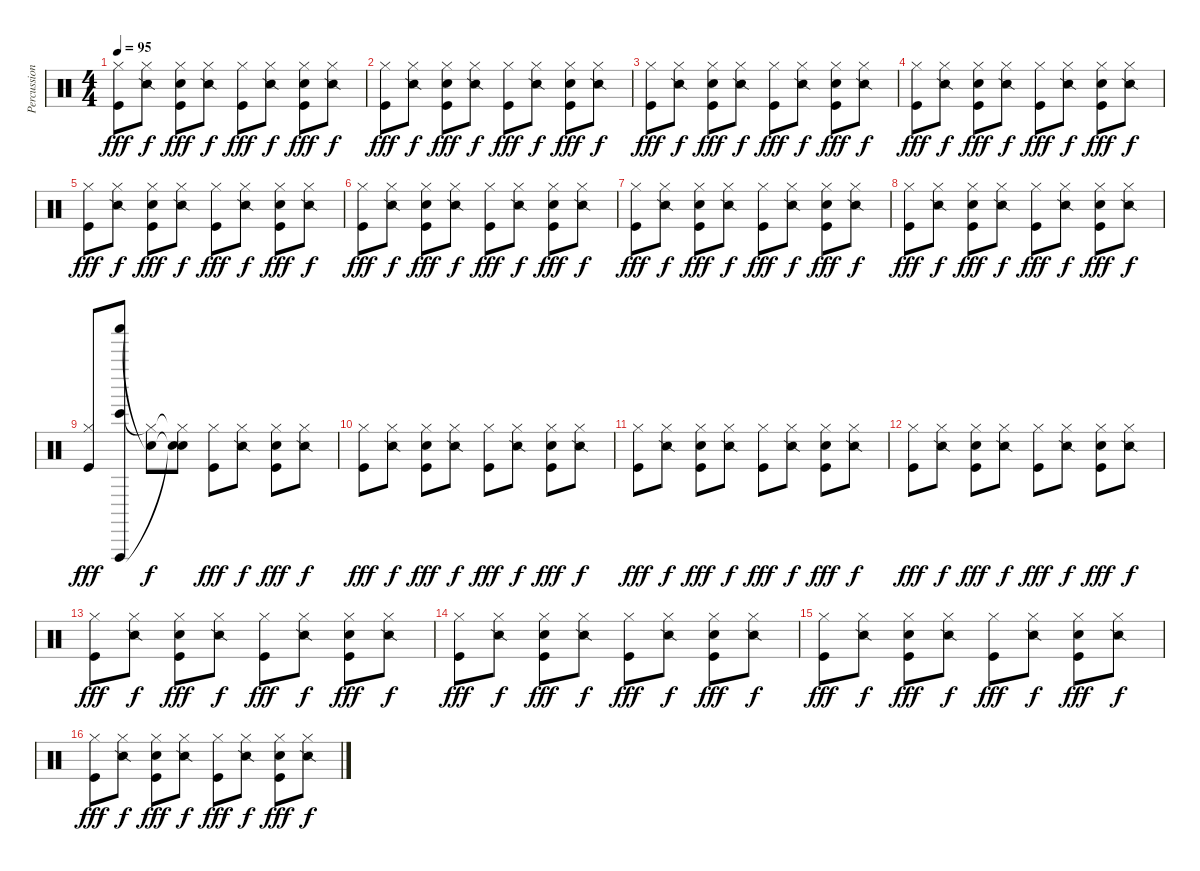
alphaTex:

\track ("Percussion" "Percussion") {instrument percussion}
\staff {score}
\articulation defaults
\ts (4 4)
\tempo 95
\clef neutral
\ks c
("Hi-Hat (closed)" "Kick (hit)").8{dy fff} ("Snare (side stick) 2" "Hi-Hat (closed)").8{dy f} ("Hi-Hat (closed)" "Snare (hit) 2" "Kick (hit)").8{dy fff} ("Snare (side stick) 2" "Hi-Hat (closed)").8{dy f} ("Hi-Hat (closed)" "Kick (hit)").8{dy fff} ("Snare (side stick) 2" "Hi-Hat (closed)").8{dy f} ("Hi-Hat (closed)" "Snare (hit) 2" "Kick (hit)").8{dy fff} ("Snare (side stick) 2" "Hi-Hat (closed)").8{dy f} |
("Hi-Hat (closed)" "Kick (hit)").8{dy fff} ("Snare (side stick) 2" "Hi-Hat (closed)").8{dy f} ("Hi-Hat (closed)" "Snare (hit) 2" "Kick (hit)").8{dy fff} ("Snare (side stick) 2" "Hi-Hat (closed)").8{dy f} ("Hi-Hat (closed)" "Kick (hit)").8{dy fff} ("Snare (side stick) 2" "Hi-Hat (closed)").8{dy f} ("Hi-Hat (closed)" "Snare (hit) 2" "Kick (hit)").8{dy fff} ("Snare (side stick) 2" "Hi-Hat (closed)").8{dy f} |
("Hi-Hat (closed)" "Kick (hit)").8{dy fff} ("Snare (side stick) 2" "Hi-Hat (closed)").8{dy f} ("Hi-Hat (closed)" "Snare (hit) 2" "Kick (hit)").8{dy fff} ("Snare (side stick) 2" "Hi-Hat (closed)").8{dy f} ("Hi-Hat (closed)" "Kick (hit)").8{dy fff} ("Snare (side stick) 2" "Hi-Hat (closed)").8{dy f} ("Hi-Hat (closed)" "Snare (hit) 2" "Kick (hit)").8{dy fff} ("Snare (side stick) 2" "Hi-Hat (closed)").8{dy f} |
("Hi-Hat (closed)" "Kick (hit)").8{dy fff} ("Snare (side stick) 2" "Hi-Hat (closed)").8{dy f} ("Hi-Hat (closed)" "Snare (hit) 2" "Kick (hit)").8{dy fff} ("Snare (side stick) 2" "Hi-Hat (closed)").8{dy f} ("Hi-Hat (closed)" "Kick (hit)").8{dy fff} ("Snare (side stick) 2" "Hi-Hat (closed)").8{dy f} ("Hi-Hat (closed)" "Snare (hit) 2" "Kick (hit)").8{dy fff} ("Snare (side stick) 2" "Hi-Hat (closed)").8{dy f} |
("Hi-Hat (closed)" "Kick (hit)").8{dy fff} ("Snare (side stick) 2" "Hi-Hat (closed)").8{dy f} ("Hi-Hat (closed)" "Snare (hit) 2" "Kick (hit)").8{dy fff} ("Snare (side stick) 2" "Hi-Hat (closed)").8{dy f} ("Hi-Hat (closed)" "Kick (hit)").8{dy fff} ("Snare (side stick) 2" "Hi-Hat (closed)").8{dy f} ("Hi-Hat (closed)" "Snare (hit) 2" "Kick (hit)").8{dy fff} ("Snare (side stick) 2" "Hi-Hat (closed)").8{dy f} |
("Hi-Hat (closed)" "Kick (hit)").8{dy fff} ("Snare (side stick) 2" "Hi-Hat (closed)").8{dy f} ("Hi-Hat (closed)" "Snare (hit) 2" "Kick (hit)").8{dy fff} ("Snare (side stick) 2" "Hi-Hat (closed)").8{dy f} ("Hi-Hat (closed)" "Kick (hit)").8{dy fff} ("Snare (side stick) 2" "Hi-Hat (closed)").8{dy f} ("Hi-Hat (closed)" "Snare (hit) 2" "Kick (hit)").8{dy fff} ("Snare (side stick) 2" "Hi-Hat (closed)").8{dy f} |
("Hi-Hat (closed)" "Kick (hit)").8{dy fff} ("Snare (side stick) 2" "Hi-Hat (closed)").8{dy f} ("Hi-Hat (closed)" "Snare (hit) 2" "Kick (hit)").8{dy fff} ("Snare (side stick) 2" "Hi-Hat (closed)").8{dy f} ("Hi-Hat (closed)" "Kick (hit)").8{dy fff} ("Snare (side stick) 2" "Hi-Hat (closed)").8{dy f} ("Hi-Hat (closed)" "Snare (hit) 2" "Kick (hit)").8{dy fff} ("Snare (side stick) 2" "Hi-Hat (closed)").8{dy f} |
("Hi-Hat (closed)" "Kick (hit)").8{dy fff} ("Snare (side stick) 2" "Hi-Hat (closed)").8{dy f} ("Hi-Hat (closed)" "Snare (hit) 2" "Kick (hit)").8{dy fff} ("Snare (side stick) 2" "Hi-Hat (closed)").8{dy f} ("Hi-Hat (closed)" "Kick (hit)").8{dy fff} ("Snare (side stick) 2" "Hi-Hat (closed)").8{dy f} ("Hi-Hat (closed)" "Snare (hit) 2" "Kick (hit)").8{dy fff} ("Snare (side stick) 2" "Hi-Hat (closed)").8{dy f} |
("Hi-Hat (closed)" "Kick (hit)").8{dy fff} ("Bongo High (hit)" "Shaker (hit)" "Vibraslap (hit)").8 ("Hi-Hat (closed)"{t} "Snare (hit) 2"{t}).8{dy f} ("Hi-Hat (closed)"{t} "Snare (hit)"{t} "Snare (hit)"{t}).8 ("Hi-Hat (closed)" "Kick (hit)").8{dy fff} ("Snare (side stick) 2" "Hi-Hat (closed)").8{dy f} ("Hi-Hat (closed)" "Snare (hit) 2" "Kick (hit)").8{dy fff} ("Snare (side stick) 2" "Hi-Hat (closed)").8{dy f} |
("Hi-Hat (closed)" "Kick (hit)").8{dy fff} ("Snare (side stick) 2" "Hi-Hat (closed)").8{dy f} ("Hi-Hat (closed)" "Snare (hit) 2" "Kick (hit)").8{dy fff} ("Snare (side stick) 2" "Hi-Hat (closed)").8{dy f} ("Hi-Hat (closed)" "Kick (hit)").8{dy fff} ("Snare (side stick) 2" "Hi-Hat (closed)").8{dy f} ("Hi-Hat (closed)" "Snare (hit) 2" "Kick (hit)").8{dy fff} ("Snare (side stick) 2" "Hi-Hat (closed)").8{dy f} |
("Hi-Hat (closed)" "Kick (hit)").8{dy fff} ("Snare (side stick) 2" "Hi-Hat (closed)").8{dy f} ("Hi-Hat (closed)" "Snare (hit) 2" "Kick (hit)").8{dy fff} ("Snare (side stick) 2" "Hi-Hat (closed)").8{dy f} ("Hi-Hat (closed)" "Kick (hit)").8{dy fff} ("Snare (side stick) 2" "Hi-Hat (closed)").8{dy f} ("Hi-Hat (closed)" "Snare (hit) 2" "Kick (hit)").8{dy fff} ("Snare (side stick) 2" "Hi-Hat (closed)").8{dy f} |
("Hi-Hat (closed)" "Kick (hit)").8{dy fff} ("Snare (side stick) 2" "Hi-Hat (closed)").8{dy f} ("Hi-Hat (closed)" "Snare (hit) 2" "Kick (hit)").8{dy fff} ("Snare (side stick) 2" "Hi-Hat (closed)").8{dy f} ("Hi-Hat (closed)" "Kick (hit)").8{dy fff} ("Snare (side stick) 2" "Hi-Hat (closed)").8{dy f} ("Hi-Hat (closed)" "Snare (hit) 2" "Kick (hit)").8{dy fff} ("Snare (side stick) 2" "Hi-Hat (closed)").8{dy f} |
("Hi-Hat (closed)" "Kick (hit)").8{dy fff} ("Snare (side stick) 2" "Hi-Hat (closed)").8{dy f} ("Hi-Hat (closed)" "Snare (hit) 2" "Kick (hit)").8{dy fff} ("Snare (side stick) 2" "Hi-Hat (closed)").8{dy f} ("Hi-Hat (closed)" "Kick (hit)").8{dy fff} ("Snare (side stick) 2" "Hi-Hat (closed)").8{dy f} ("Hi-Hat (closed)" "Snare (hit) 2" "Kick (hit)").8{dy fff} ("Snare (side stick) 2" "Hi-Hat (closed)").8{dy f} |
("Hi-Hat (closed)" "Kick (hit)").8{dy fff} ("Snare (side stick) 2" "Hi-Hat (closed)").8{dy f} ("Hi-Hat (closed)" "Snare (hit) 2" "Kick (hit)").8{dy fff} ("Snare (side stick) 2" "Hi-Hat (closed)").8{dy f} ("Hi-Hat (closed)" "Kick (hit)").8{dy fff} ("Snare (side stick) 2" "Hi-Hat (closed)").8{dy f} ("Hi-Hat (closed)" "Snare (hit) 2" "Kick (hit)").8{dy fff} ("Snare (side stick) 2" "Hi-Hat (closed)").8{dy f} |
("Hi-Hat (closed)" "Kick (hit)").8{dy fff} ("Snare (side stick) 2" "Hi-Hat (closed)").8{dy f} ("Hi-Hat (closed)" "Snare (hit) 2" "Kick (hit)").8{dy fff} ("Snare (side stick) 2" "Hi-Hat (closed)").8{dy f} ("Hi-Hat (closed)" "Kick (hit)").8{dy fff} ("Snare (side stick) 2" "Hi-Hat (closed)").8{dy f} ("Hi-Hat (closed)" "Snare (hit) 2" "Kick (hit)").8{dy fff} ("Snare (side stick) 2" "Hi-Hat (closed)").8{dy f} |
("Hi-Hat (closed)" "Kick (hit)").8{dy fff} ("Snare (side stick) 2" "Hi-Hat (closed)").8{dy f} ("Hi-Hat (closed)" "Snare (hit) 2" "Kick (hit)").8{dy fff} ("Snare (side stick) 2" "Hi-Hat (closed)").8{dy f} ("Hi-Hat (closed)" "Kick (hit)").8{dy fff} ("Snare (side stick) 2" "Hi-Hat (closed)").8{dy f} ("Hi-Hat (closed)" "Snare (hit) 2" "Kick (hit)").8{dy fff} ("Snare (side stick) 2" "Hi-Hat (closed)").8{dy f}
